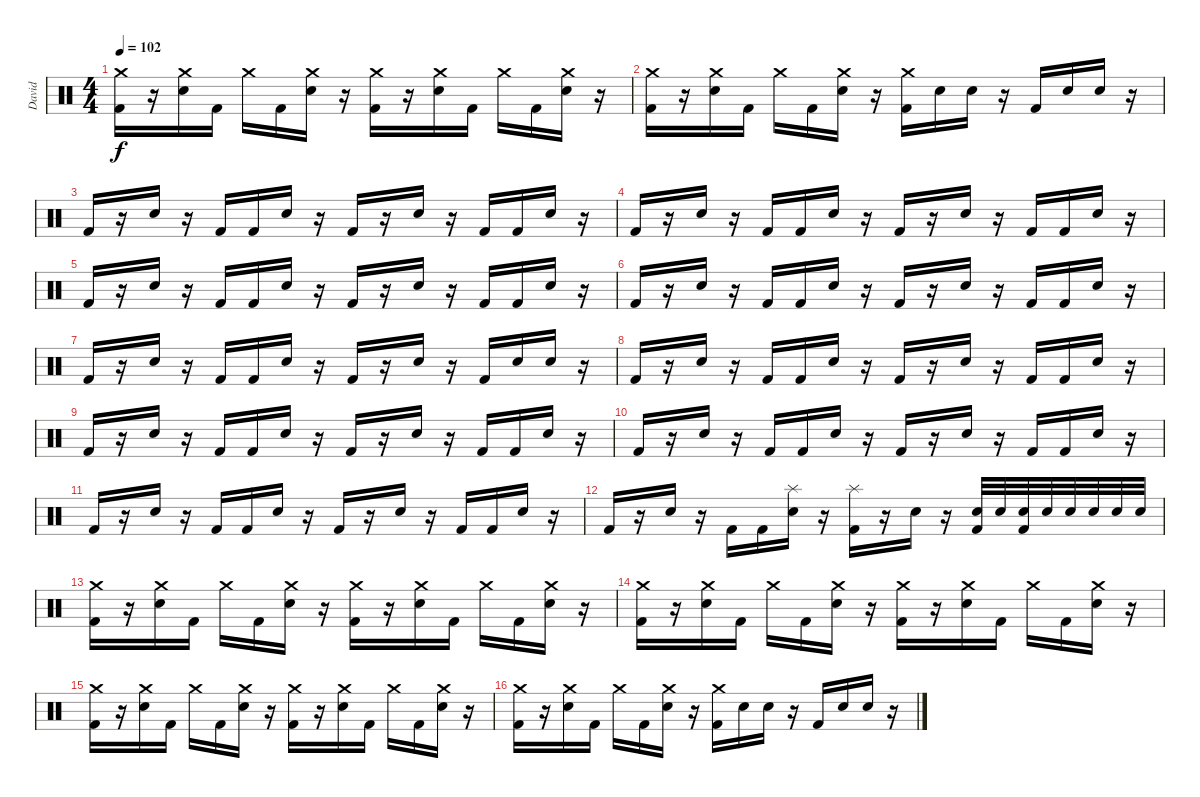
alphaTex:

\track ("David" "David") {instrument percussion}
\staff {score}
\articulation defaults
\ts (4 4)
\tempo 102
\clef neutral
\ks c
("Crash medium (hit)" "Kick (hit) 2").16{dy f} r.16 ("Crash medium (hit)" "Electric Snare (hit)").16 "Kick (hit) 2".16 "Crash medium (hit)".16 "Kick (hit) 2".16 ("Crash medium (hit)" "Electric Snare (hit)").16 r.16 ("Crash medium (hit)" "Kick (hit) 2").16 r.16 ("Crash medium (hit)" "Electric Snare (hit)").16 "Kick (hit) 2".16 "Crash medium (hit)".16 "Kick (hit) 2".16 ("Crash medium (hit)" "Electric Snare (hit)").16 r.16 |
("Crash medium (hit)" "Kick (hit) 2").16 r.16 ("Crash medium (hit)" "Electric Snare (hit)").16 "Kick (hit) 2".16 "Crash medium (hit)".16 "Kick (hit) 2".16 ("Crash medium (hit)" "Electric Snare (hit)").16 r.16 ("Crash medium (hit)" "Kick (hit) 2").16 "Electric Snare (hit)".16 "Electric Snare (hit)".16 r.16 "Kick (hit) 2".16 "Electric Snare (hit)".16 "Electric Snare (hit)".16 r.16 |
"Kick (hit) 2".16 r.16 "Electric Snare (hit)".16 r.16 "Kick (hit) 2".16 "Kick (hit) 2".16 "Electric Snare (hit)".16 r.16 "Kick (hit) 2".16 r.16 "Electric Snare (hit)".16 r.16 "Kick (hit) 2".16 "Kick (hit) 2".16 "Electric Snare (hit)".16 r.16 |
"Kick (hit) 2".16 r.16 "Electric Snare (hit)".16 r.16 "Kick (hit) 2".16 "Kick (hit) 2".16 "Electric Snare (hit)".16 r.16 "Kick (hit) 2".16 r.16 "Electric Snare (hit)".16 r.16 "Kick (hit) 2".16 "Kick (hit) 2".16 "Electric Snare (hit)".16 r.16 |
"Kick (hit) 2".16 r.16 "Electric Snare (hit)".16 r.16 "Kick (hit) 2".16 "Kick (hit) 2".16 "Electric Snare (hit)".16 r.16 "Kick (hit) 2".16 r.16 "Electric Snare (hit)".16 r.16 "Kick (hit) 2".16 "Kick (hit) 2".16 "Electric Snare (hit)".16 r.16 |
"Kick (hit) 2".16 r.16 "Electric Snare (hit)".16 r.16 "Kick (hit) 2".16 "Kick (hit) 2".16 "Electric Snare (hit)".16 r.16 "Kick (hit) 2".16 r.16 "Electric Snare (hit)".16 r.16 "Kick (hit) 2".16 "Kick (hit) 2".16 "Electric Snare (hit)".16 r.16 |
"Kick (hit) 2".16 r.16 "Electric Snare (hit)".16 r.16 "Kick (hit) 2".16 "Kick (hit) 2".16 "Electric Snare (hit)".16 r.16 "Kick (hit) 2".16 r.16 "Electric Snare (hit)".16 r.16 "Kick (hit) 2".16 "Electric Snare (hit)".16 "Electric Snare (hit)".16 r.16 |
"Kick (hit) 2".16 r.16 "Electric Snare (hit)".16 r.16 "Kick (hit) 2".16 "Kick (hit) 2".16 "Electric Snare (hit)".16 r.16 "Kick (hit) 2".16 r.16 "Electric Snare (hit)".16 r.16 "Kick (hit) 2".16 "Kick (hit) 2".16 "Electric Snare (hit)".16 r.16 |
"Kick (hit) 2".16 r.16 "Electric Snare (hit)".16 r.16 "Kick (hit) 2".16 "Kick (hit) 2".16 "Electric Snare (hit)".16 r.16 "Kick (hit) 2".16 r.16 "Electric Snare (hit)".16 r.16 "Kick (hit) 2".16 "Kick (hit) 2".16 "Electric Snare (hit)".16 r.16 |
"Kick (hit) 2".16 r.16 "Electric Snare (hit)".16 r.16 "Kick (hit) 2".16 "Kick (hit) 2".16 "Electric Snare (hit)".16 r.16 "Kick (hit) 2".16 r.16 "Electric Snare (hit)".16 r.16 "Kick (hit) 2".16 "Kick (hit) 2".16 "Electric Snare (hit)".16 r.16 |
"Kick (hit) 2".16 r.16 "Electric Snare (hit)".16 r.16 "Kick (hit) 2".16 "Kick (hit) 2".16 "Electric Snare (hit)".16 r.16 "Kick (hit) 2".16 r.16 "Electric Snare (hit)".16 r.16 "Kick (hit) 2".16 "Kick (hit) 2".16 "Electric Snare (hit)".16 r.16 |
"Kick (hit) 2".16 r.16 "Electric Snare (hit)".16 r.16 "Kick (hit) 2".16 "Kick (hit) 2".16 ("Splash (hit)" "Electric Snare (hit)").16 r.16 ("Splash (hit)" "Kick (hit) 2").16 r.16 "Electric Snare (hit)".16 r.16 ("Electric Snare (hit)" "Kick (hit) 2").32 "Electric Snare (hit)".32 ("Electric Snare (hit)" "Kick (hit) 2").32 "Electric Snare (hit)".32 "Electric Snare (hit)".32 "Electric Snare (hit)".32 "Electric Snare (hit)".32 "Electric Snare (hit)".32 |
("Crash medium (hit)" "Kick (hit) 2").16 r.16 ("Crash medium (hit)" "Electric Snare (hit)").16 "Kick (hit) 2".16 "Crash medium (hit)".16 "Kick (hit) 2".16 ("Crash medium (hit)" "Electric Snare (hit)").16 r.16 ("Crash medium (hit)" "Kick (hit) 2").16 r.16 ("Crash medium (hit)" "Electric Snare (hit)").16 "Kick (hit) 2".16 "Crash medium (hit)".16 "Kick (hit) 2".16 ("Crash medium (hit)" "Electric Snare (hit)").16 r.16 |
("Crash medium (hit)" "Kick (hit) 2").16 r.16 ("Crash medium (hit)" "Electric Snare (hit)").16 "Kick (hit) 2".16 "Crash medium (hit)".16 "Kick (hit) 2".16 ("Crash medium (hit)" "Electric Snare (hit)").16 r.16 ("Crash medium (hit)" "Kick (hit) 2").16 r.16 ("Crash medium (hit)" "Electric Snare (hit)").16 "Kick (hit) 2".16 "Crash medium (hit)".16 "Kick (hit) 2".16 ("Crash medium (hit)" "Electric Snare (hit)").16 r.16 |
("Crash medium (hit)" "Kick (hit) 2").16 r.16 ("Crash medium (hit)" "Electric Snare (hit)").16 "Kick (hit) 2".16 "Crash medium (hit)".16 "Kick (hit) 2".16 ("Crash medium (hit)" "Electric Snare (hit)").16 r.16 ("Crash medium (hit)" "Kick (hit) 2").16 r.16 ("Crash medium (hit)" "Electric Snare (hit)").16 "Kick (hit) 2".16 "Crash medium (hit)".16 "Kick (hit) 2".16 ("Crash medium (hit)" "Electric Snare (hit)").16 r.16 |
("Crash medium (hit)" "Kick (hit) 2").16 r.16 ("Crash medium (hit)" "Electric Snare (hit)").16 "Kick (hit) 2".16 "Crash medium (hit)".16 "Kick (hit) 2".16 ("Crash medium (hit)" "Electric Snare (hit)").16 r.16 ("Crash medium (hit)" "Kick (hit) 2").16 "Electric Snare (hit)".16 "Electric Snare (hit)".16 r.16 "Kick (hit) 2".16 "Electric Snare (hit)".16 "Electric Snare (hit)".16 r.16
